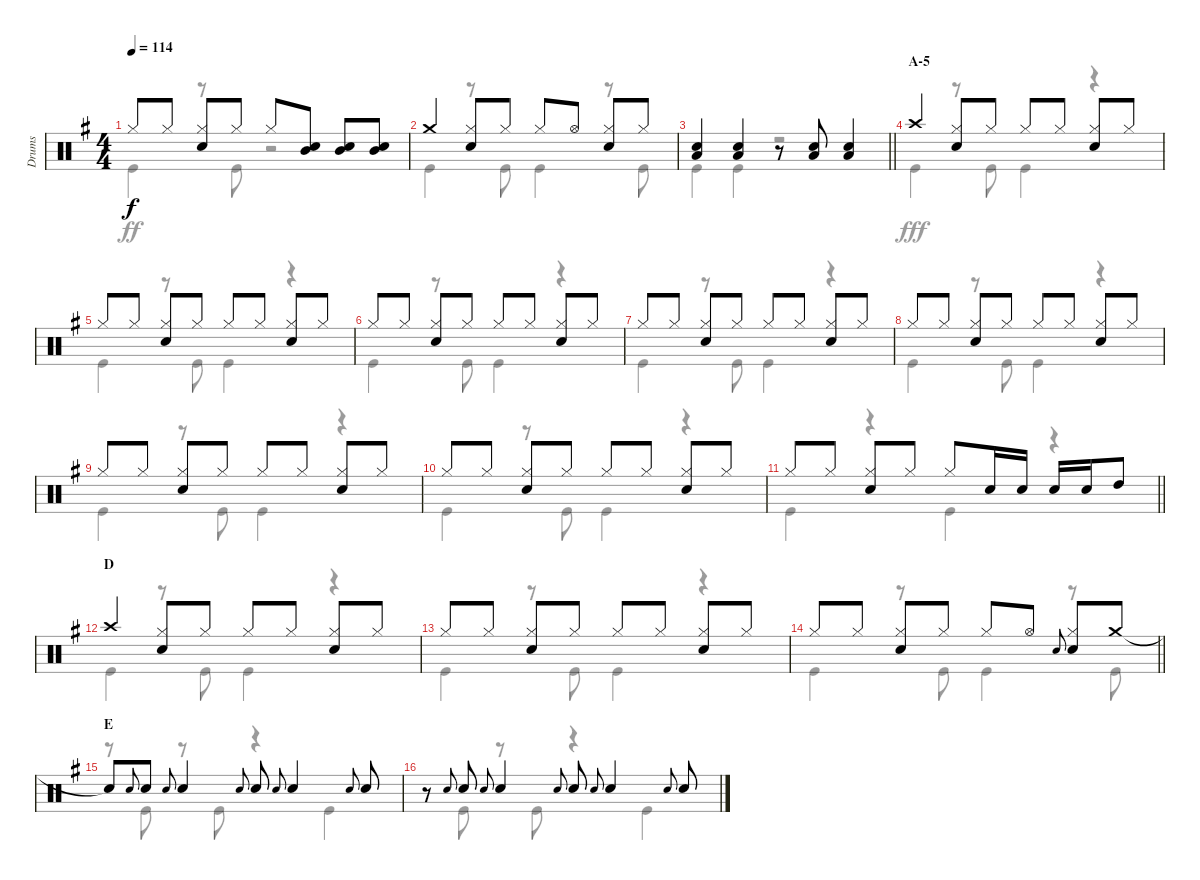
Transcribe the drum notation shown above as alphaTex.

\track ("Drums" "Drums") {instrument percussion}
\staff {score}
\articulation defaults
\voice
\ts (4 4)
\tempo 114
\clef neutral
\ks g "Hi-Hat (closed)".8{dy f} "Hi-Hat (closed)".8
("Hi-Hat (closed)" "Snare (hit) 2").8 "Hi-Hat (closed)".8 "Hi-Hat (closed)".8 ("Mid Tom (hit)" "Snare (hit) 2").8 ("Mid Tom (hit)" "Snare (hit) 2").8 ("Mid Tom (hit)" "Snare (hit) 2").8 |
"Crash medium (hit)".4 ("Hi-Hat (closed)" "Snare (hit) 2").8 "Hi-Hat (closed)".8 "Hi-Hat (closed)".8 "Hi-Hat (open)".8 ("Hi-Hat (closed)" "Snare (hit) 2").8 "Hi-Hat (closed)".8 |
\barLineRight lightlight
("Snare (hit) 2" "Low Tom (hit)").4 ("Snare (hit) 2" "Low Tom (hit)").4 r.8 ("Snare (hit) 2" "Low Tom (hit)").8 ("Snare (hit) 2" "Low Tom (hit)").4 |
\section ("" "A-5")
"Crash high (hit)".4 ("Hi-Hat (closed)" "Snare (hit) 2").8 "Hi-Hat (closed)".8 "Hi-Hat (closed)".8 "Hi-Hat (closed)".8 ("Hi-Hat (closed)" "Snare (hit) 2").8 "Hi-Hat (closed)".8 |
"Hi-Hat (closed)".8 "Hi-Hat (closed)".8 ("Hi-Hat (closed)" "Snare (hit) 2").8 "Hi-Hat (closed)".8 "Hi-Hat (closed)".8 "Hi-Hat (closed)".8 ("Hi-Hat (closed)" "Snare (hit) 2").8 "Hi-Hat (closed)".8 |
"Hi-Hat (closed)".8 "Hi-Hat (closed)".8 ("Hi-Hat (closed)" "Snare (hit) 2").8 "Hi-Hat (closed)".8 "Hi-Hat (closed)".8 "Hi-Hat (closed)".8 ("Hi-Hat (closed)" "Snare (hit) 2").8 "Hi-Hat (closed)".8 |
"Hi-Hat (closed)".8 "Hi-Hat (closed)".8 ("Hi-Hat (closed)" "Snare (hit) 2").8 "Hi-Hat (closed)".8 "Hi-Hat (closed)".8 "Hi-Hat (closed)".8 ("Hi-Hat (closed)" "Snare (hit) 2").8 "Hi-Hat (closed)".8 |
"Hi-Hat (closed)".8 "Hi-Hat (closed)".8 ("Hi-Hat (closed)" "Snare (hit) 2").8 "Hi-Hat (closed)".8 "Hi-Hat (closed)".8 "Hi-Hat (closed)".8 ("Hi-Hat (closed)" "Snare (hit) 2").8 "Hi-Hat (closed)".8 |
"Hi-Hat (closed)".8 "Hi-Hat (closed)".8 ("Hi-Hat (closed)" "Snare (hit) 2").8 "Hi-Hat (closed)".8 "Hi-Hat (closed)".8 "Hi-Hat (closed)".8 ("Hi-Hat (closed)" "Snare (hit) 2").8 "Hi-Hat (closed)".8 |
"Hi-Hat (closed)".8 "Hi-Hat (closed)".8 ("Hi-Hat (closed)" "Snare (hit) 2").8 "Hi-Hat (closed)".8 "Hi-Hat (closed)".8 "Hi-Hat (closed)".8 ("Hi-Hat (closed)" "Snare (hit) 2").8 "Hi-Hat (closed)".8 |
\barLineRight lightlight "Hi-Hat (closed)".8 "Hi-Hat (closed)".8
("Hi-Hat (closed)" "Snare (hit) 2").8 "Hi-Hat (closed)".8 "Hi-Hat (closed)".8 "Snare (hit) 2".16 "Snare (hit) 2".16 "Snare (hit) 2".16 "Snare (hit) 2".16 "High Tom (hit)".8 |
\section ("" "D")
"Crash high (hit)".4 ("Hi-Hat (closed)" "Snare (hit) 2").8 "Hi-Hat (closed)".8 "Hi-Hat (closed)".8 "Hi-Hat (closed)".8 ("Hi-Hat (closed)" "Snare (hit) 2").8 "Hi-Hat (closed)".8 |
"Hi-Hat (closed)".8 "Hi-Hat (closed)".8 ("Hi-Hat (closed)" "Snare (hit) 2").8 "Hi-Hat (closed)".8 "Hi-Hat (closed)".8 "Hi-Hat (closed)".8 ("Hi-Hat (closed)" "Snare (hit) 2").8 "Hi-Hat (closed)".8 |
\barLineRight lightlight "Hi-Hat (closed)".8 "Hi-Hat (closed)".8
("Hi-Hat (closed)" "Snare (hit) 2").8 "Hi-Hat (closed)".8 "Hi-Hat (closed)".8 "Hi-Hat (open)".8 "Snare (hit) 2".8{gr onbeat} ("Hi-Hat (closed)" "Snare (hit) 2").8 "Crash medium (hit)".8 |
\section ("" "E")
"Snare (hit)"{t}.8 "Snare (hit) 2".8{gr onbeat} "Snare (hit) 2".8 "Snare (hit) 2".8{gr onbeat} "Snare (hit) 2".4 "Snare (hit) 2".8{gr onbeat} "Snare (hit) 2".8 "Snare (hit) 2".8{gr onbeat} "Snare (hit) 2".4 "Snare (hit) 2".8{gr onbeat} "Snare (hit) 2".8 |
r.8 "Snare (hit) 2".8{gr onbeat} "Snare (hit) 2".8 "Snare (hit) 2".8{gr onbeat} "Snare (hit) 2".4 "Snare (hit) 2".8{gr onbeat} "Snare (hit) 2".8 "Snare (hit) 2".8{gr onbeat} "Snare (hit) 2".4 "Snare (hit) 2".8{gr onbeat} "Snare (hit) 2".8
\voice
\clef neutral
\ottava regular
\simile none
\ks g "Kick (hit)".4{dy ff}
r.8 "Kick (hit)".8 r.2 |
"Kick (hit)".4 r.8 "Kick (hit)".8 "Kick (hit)".4 r.8 "Kick (hit)".8 |
\barLineRight lightlight "Kick (hit)".4 "Kick (hit)".4
r.2 |
"Kick (hit)".4{dy fff} r.8 "Kick (hit)".8 "Kick (hit)".4 r.4 |
"Kick (hit)".4 r.8 "Kick (hit)".8 "Kick (hit)".4 r.4 |
"Kick (hit)".4 r.8 "Kick (hit)".8 "Kick (hit)".4 r.4 |
"Kick (hit)".4 r.8 "Kick (hit)".8 "Kick (hit)".4 r.4 |
"Kick (hit)".4 r.8 "Kick (hit)".8 "Kick (hit)".4 r.4 |
"Kick (hit)".4 r.8 "Kick (hit)".8 "Kick (hit)".4 r.4 |
"Kick (hit)".4 r.8 "Kick (hit)".8 "Kick (hit)".4 r.4 |
\barLineRight lightlight "Kick (hit)".4
r.4 "Kick (hit)".4 r.4 |
"Kick (hit)".4 r.8 "Kick (hit)".8 "Kick (hit)".4 r.4 |
"Kick (hit)".4 r.8 "Kick (hit)".8 "Kick (hit)".4 r.4 |
\barLineRight lightlight "Kick (hit)".4
r.8 "Kick (hit)".8 "Kick (hit)".4 r.8 "Kick (hit)".8 |
r.8 "Kick (hit)".8 r.8 "Kick (hit)".8 r.4 "Kick (hit)".4 |
r.8 "Kick (hit)".8 r.8 "Kick (hit)".8 r.4 "Kick (hit)".4
